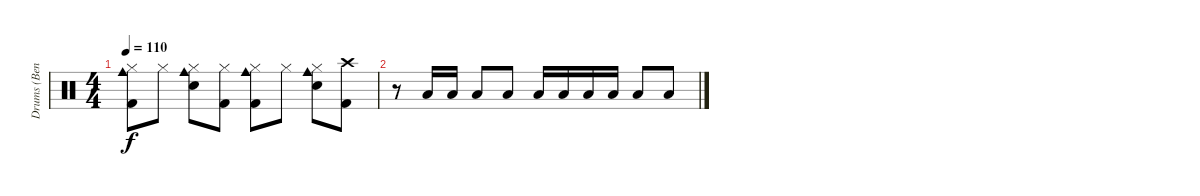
\track ("Drums (Bengerg)" "Drums (Ben") {instrument percussion}
\staff {score}
\articulation defaults
\ts (4 4)
\tempo 110
\clef neutral
\ks c
("Hi-Hat (closed)" "Cowbell medium (hit)" "Kick (hit) 2").8{dy f} "Hi-Hat (closed)".8 ("Hi-Hat (closed)" "Cowbell medium (hit)" "Electric Snare (hit)").8 ("Hi-Hat (closed)" "Kick (hit) 2").8 ("Hi-Hat (closed)" "Cowbell medium (hit)" "Kick (hit) 2").8 "Hi-Hat (closed)".8 ("Hi-Hat (closed)" "Cowbell medium (hit)" "Electric Snare (hit)").8 ("Crash high (hit)" "Kick (hit) 2").8 |
r.8 "Low Tom (hit)".16 "Low Tom (hit)".16 "Low Tom (hit)".8 "Low Tom (hit)".8 "Low Tom (hit)".16 "Low Tom (hit)".16 "Low Tom (hit)".16 "Low Tom (hit)".16 "Low Tom (hit)".8 "Low Tom (hit)".8
